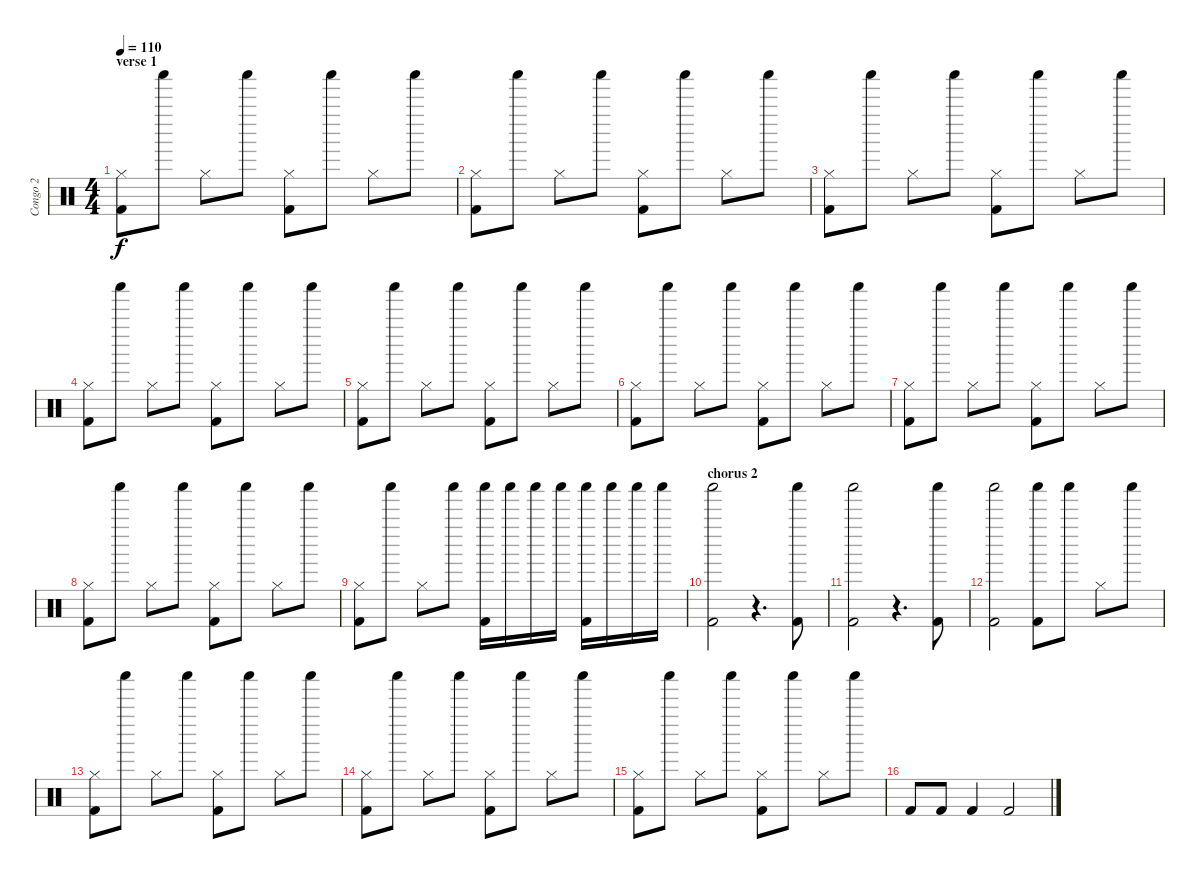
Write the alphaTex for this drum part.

\track ("Congo 2" "Congo 2") {instrument percussion}
\staff {score}
\articulation defaults
\ts (4 4)
\section ("" "verse 1")
\tempo 110
\clef neutral
\ks c
("Kick (hit) 2" "Hi-Hat (closed)").8{dy f} "Shaker (hit)".8 "Hi-Hat (closed)".8 "Shaker (hit)".8 ("Kick (hit) 2" "Hi-Hat (closed)").8 "Shaker (hit)".8 "Hi-Hat (closed)".8 "Shaker (hit)".8 |
("Kick (hit) 2" "Hi-Hat (closed)").8 "Shaker (hit)".8 "Hi-Hat (closed)".8 "Shaker (hit)".8 ("Kick (hit) 2" "Hi-Hat (closed)").8 "Shaker (hit)".8 "Hi-Hat (closed)".8 "Shaker (hit)".8 |
("Kick (hit) 2" "Hi-Hat (closed)").8 "Shaker (hit)".8 "Hi-Hat (closed)".8 "Shaker (hit)".8 ("Kick (hit) 2" "Hi-Hat (closed)").8 "Shaker (hit)".8 "Hi-Hat (closed)".8 "Shaker (hit)".8 |
("Kick (hit) 2" "Hi-Hat (closed)").8 "Shaker (hit)".8 "Hi-Hat (closed)".8 "Shaker (hit)".8 ("Kick (hit) 2" "Hi-Hat (closed)").8 "Shaker (hit)".8 "Hi-Hat (closed)".8 "Shaker (hit)".8 |
("Kick (hit) 2" "Hi-Hat (closed)").8 "Shaker (hit)".8 "Hi-Hat (closed)".8 "Shaker (hit)".8 ("Kick (hit) 2" "Hi-Hat (closed)").8 "Shaker (hit)".8 "Hi-Hat (closed)".8 "Shaker (hit)".8 |
("Kick (hit) 2" "Hi-Hat (closed)").8 "Shaker (hit)".8 "Hi-Hat (closed)".8 "Shaker (hit)".8 ("Kick (hit) 2" "Hi-Hat (closed)").8 "Shaker (hit)".8 "Hi-Hat (closed)".8 "Shaker (hit)".8 |
("Kick (hit) 2" "Hi-Hat (closed)").8 "Shaker (hit)".8 "Hi-Hat (closed)".8 "Shaker (hit)".8 ("Kick (hit) 2" "Hi-Hat (closed)").8 "Shaker (hit)".8 "Hi-Hat (closed)".8 "Shaker (hit)".8 |
("Kick (hit) 2" "Hi-Hat (closed)").8 "Shaker (hit)".8 "Hi-Hat (closed)".8 "Shaker (hit)".8 ("Kick (hit) 2" "Hi-Hat (closed)").8 "Shaker (hit)".8 "Hi-Hat (closed)".8 "Shaker (hit)".8 |
("Kick (hit) 2" "Hi-Hat (closed)").8 "Shaker (hit)".8 "Hi-Hat (closed)".8 "Shaker (hit)".8 ("Kick (hit) 2" "Shaker (hit)").16 "Shaker (hit)".16 "Shaker (hit)".16 "Shaker (hit)".16 ("Kick (hit) 2" "Shaker (hit)").16 "Shaker (hit)".16 "Shaker (hit)".16 "Shaker (hit)".16 |
\section ("" "chorus 2")
("Kick (hit) 2" "Shaker (hit)").2 r.4{d} ("Kick (hit) 2" "Shaker (hit)").8 |
("Kick (hit) 2" "Shaker (hit)").2 r.4{d} ("Kick (hit) 2" "Shaker (hit)").8 |
("Kick (hit) 2" "Shaker (hit)").2 ("Kick (hit) 2" "Shaker (hit)").8 "Shaker (hit)".8 "Hi-Hat (closed)".8 "Shaker (hit)".8 |
("Kick (hit) 2" "Hi-Hat (closed)").8 "Shaker (hit)".8 "Hi-Hat (closed)".8 "Shaker (hit)".8 ("Kick (hit) 2" "Hi-Hat (closed)").8 "Shaker (hit)".8 "Hi-Hat (closed)".8 "Shaker (hit)".8 |
("Kick (hit) 2" "Hi-Hat (closed)").8 "Shaker (hit)".8 "Hi-Hat (closed)".8 "Shaker (hit)".8 ("Kick (hit) 2" "Hi-Hat (closed)").8 "Shaker (hit)".8 "Hi-Hat (closed)".8 "Shaker (hit)".8 |
("Kick (hit) 2" "Hi-Hat (closed)").8 "Shaker (hit)".8 "Hi-Hat (closed)".8 "Shaker (hit)".8 ("Kick (hit) 2" "Hi-Hat (closed)").8 "Shaker (hit)".8 "Hi-Hat (closed)".8 "Shaker (hit)".8 |
"Kick (hit) 2".8 "Kick (hit) 2".8 "Kick (hit) 2".4 "Kick (hit) 2".2
